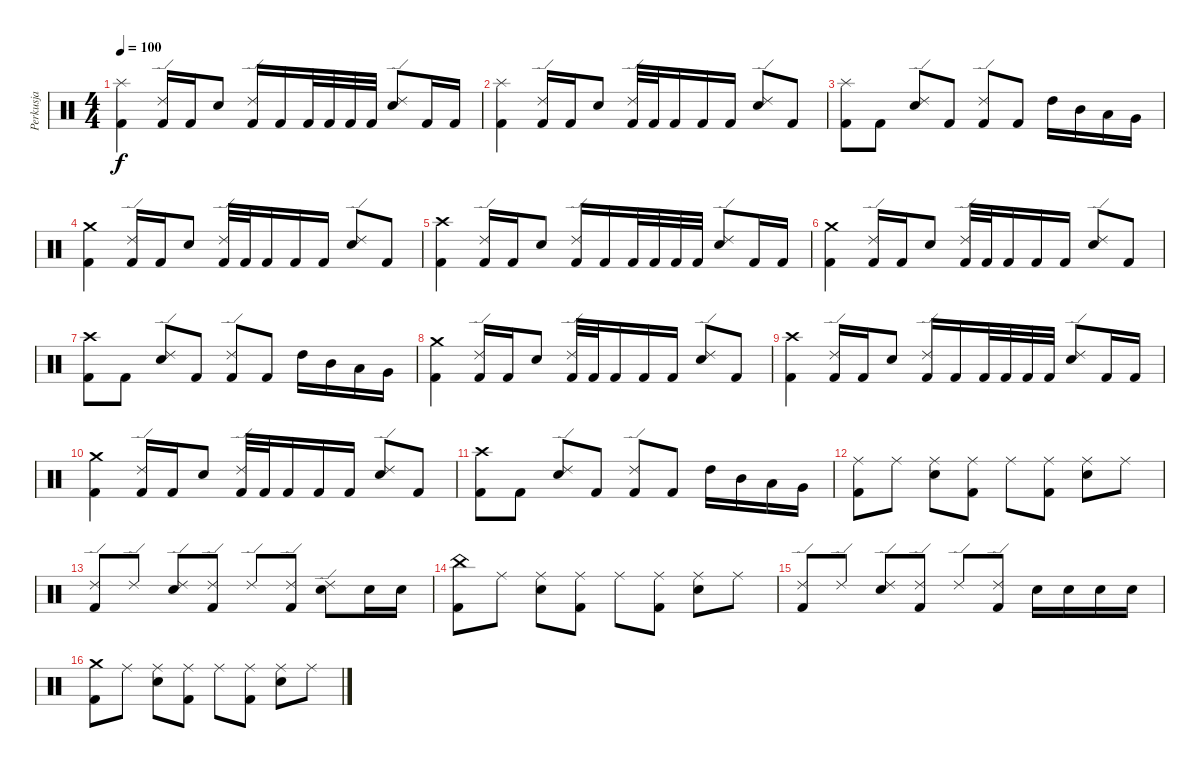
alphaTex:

\track ("Perkusja" "Perkusja") {instrument percussion}
\staff {score}
\articulation defaults
\ts (4 4)
\tempo 100
\clef neutral
\ks c
("Splash (hit)" "Kick (hit) 2").4{dy f} ("Ride (edge) 2" "Kick (hit) 2").16 "Kick (hit) 2".16 "Electric Snare (hit)".8 ("Ride (edge) 2" "Kick (hit) 2").16 "Kick (hit) 2".16 "Kick (hit) 2".32 "Kick (hit) 2".32 "Kick (hit) 2".32 "Kick (hit) 2".32 ("Ride (edge) 2" "Electric Snare (hit)").8 "Kick (hit) 2".16 "Kick (hit) 2".16 |
("Splash (hit)" "Kick (hit) 2").4 ("Ride (edge) 2" "Kick (hit) 2").16 "Kick (hit) 2".16 "Electric Snare (hit)".8 ("Ride (edge) 2" "Kick (hit) 2").32 "Kick (hit) 2".32 "Kick (hit) 2".16 "Kick (hit) 2".16 "Kick (hit) 2".16 ("Ride (edge) 2" "Electric Snare (hit)").8 "Kick (hit) 2".8 |
("Splash (hit)" "Kick (hit) 2").8 "Kick (hit) 2".8 ("Ride (edge) 2" "Electric Snare (hit)").8 "Kick (hit) 2".8 ("Ride (edge) 2" "Kick (hit) 2").8 "Kick (hit) 2".8 "High Tom (hit)".16 "Mid Tom (hit)".16 "Low Tom (hit)".16 "Very Low Tom (hit)".16 |
("Crash medium (hit)" "Kick (hit) 2").4 ("Ride (edge) 2" "Kick (hit) 2").16 "Kick (hit) 2".16 "Electric Snare (hit)".8 ("Ride (edge) 2" "Kick (hit) 2").32 "Kick (hit) 2".32 "Kick (hit) 2".16 "Kick (hit) 2".16 "Kick (hit) 2".16 ("Ride (edge) 2" "Electric Snare (hit)").8 "Kick (hit) 2".8 |
("Crash high (hit)" "Kick (hit) 2").4 ("Ride (edge) 2" "Kick (hit) 2").16 "Kick (hit) 2".16 "Electric Snare (hit)".8 ("Ride (edge) 2" "Kick (hit) 2").16 "Kick (hit) 2".16 "Kick (hit) 2".32 "Kick (hit) 2".32 "Kick (hit) 2".32 "Kick (hit) 2".32 ("Ride (edge) 2" "Electric Snare (hit)").8 "Kick (hit) 2".16 "Kick (hit) 2".16 |
("Crash medium (hit)" "Kick (hit) 2").4 ("Ride (edge) 2" "Kick (hit) 2").16 "Kick (hit) 2".16 "Electric Snare (hit)".8 ("Ride (edge) 2" "Kick (hit) 2").32 "Kick (hit) 2".32 "Kick (hit) 2".16 "Kick (hit) 2".16 "Kick (hit) 2".16 ("Ride (edge) 2" "Electric Snare (hit)").8 "Kick (hit) 2".8 |
("Crash high (hit)" "Kick (hit) 2").8 "Kick (hit) 2".8 ("Ride (edge) 2" "Electric Snare (hit)").8 "Kick (hit) 2".8 ("Ride (edge) 2" "Kick (hit) 2").8 "Kick (hit) 2".8 "High Tom (hit)".16 "Mid Tom (hit)".16 "Low Tom (hit)".16 "Very Low Tom (hit)".16 |
("Crash medium (hit)" "Kick (hit) 2").4 ("Ride (edge) 2" "Kick (hit) 2").16 "Kick (hit) 2".16 "Electric Snare (hit)".8 ("Ride (edge) 2" "Kick (hit) 2").32 "Kick (hit) 2".32 "Kick (hit) 2".16 "Kick (hit) 2".16 "Kick (hit) 2".16 ("Ride (edge) 2" "Electric Snare (hit)").8 "Kick (hit) 2".8 |
("Crash high (hit)" "Kick (hit) 2").4 ("Ride (edge) 2" "Kick (hit) 2").16 "Kick (hit) 2".16 "Electric Snare (hit)".8 ("Ride (edge) 2" "Kick (hit) 2").16 "Kick (hit) 2".16 "Kick (hit) 2".32 "Kick (hit) 2".32 "Kick (hit) 2".32 "Kick (hit) 2".32 ("Ride (edge) 2" "Electric Snare (hit)").8 "Kick (hit) 2".16 "Kick (hit) 2".16 |
("Crash medium (hit)" "Kick (hit) 2").4 ("Ride (edge) 2" "Kick (hit) 2").16 "Kick (hit) 2".16 "Electric Snare (hit)".8 ("Ride (edge) 2" "Kick (hit) 2").32 "Kick (hit) 2".32 "Kick (hit) 2".16 "Kick (hit) 2".16 "Kick (hit) 2".16 ("Ride (edge) 2" "Electric Snare (hit)").8 "Kick (hit) 2".8 |
("Crash high (hit)" "Kick (hit) 2").8 "Kick (hit) 2".8 ("Ride (edge) 2" "Electric Snare (hit)").8 "Kick (hit) 2".8 ("Ride (edge) 2" "Kick (hit) 2").8 "Kick (hit) 2".8 "High Tom (hit)".16 "Mid Tom (hit)".16 "Low Tom (hit)".16 "Very Low Tom (hit)".16 |
("Ride (middle)" "Kick (hit) 2").8 "Ride (middle)".8 ("Ride (middle)" "Electric Snare (hit)").8 ("Ride (middle)" "Kick (hit) 2").8 "Ride (middle)".8 ("Ride (middle)" "Kick (hit) 2").8 ("Ride (middle)" "Electric Snare (hit)").8 "Ride (middle)".8 |
("Ride (edge) 2" "Kick (hit) 2").8 "Ride (edge) 2".8 ("Ride (edge) 2" "Electric Snare (hit)").8 ("Ride (edge) 2" "Kick (hit) 2").8 "Ride (edge) 2".8 ("Ride (edge) 2" "Kick (hit) 2").8 ("Ride (edge) 2" "Electric Snare (hit)").8 "Electric Snare (hit)".16 "Electric Snare (hit)".16 |
("China (hit)" "Kick (hit) 2").8 "Ride (middle)".8 ("Ride (middle)" "Electric Snare (hit)").8 ("Ride (middle)" "Kick (hit) 2").8 "Ride (middle)".8 ("Ride (middle)" "Kick (hit) 2").8 ("Ride (middle)" "Electric Snare (hit)").8 "Ride (middle)".8 |
("Ride (edge) 2" "Kick (hit) 2").8 "Ride (edge) 2".8 ("Ride (edge) 2" "Electric Snare (hit)").8 ("Ride (edge) 2" "Kick (hit) 2").8 "Ride (edge) 2".8 ("Ride (edge) 2" "Kick (hit) 2").8 "Electric Snare (hit)".16 "Electric Snare (hit)".16 "Electric Snare (hit)".16 "Electric Snare (hit)".16 |
("Crash medium (hit)" "Kick (hit) 2").8 "Ride (middle)".8 ("Ride (middle)" "Electric Snare (hit)").8 ("Ride (middle)" "Kick (hit) 2").8 "Ride (middle)".8 ("Ride (middle)" "Kick (hit) 2").8 ("Ride (middle)" "Electric Snare (hit)").8 "Ride (middle)".8
